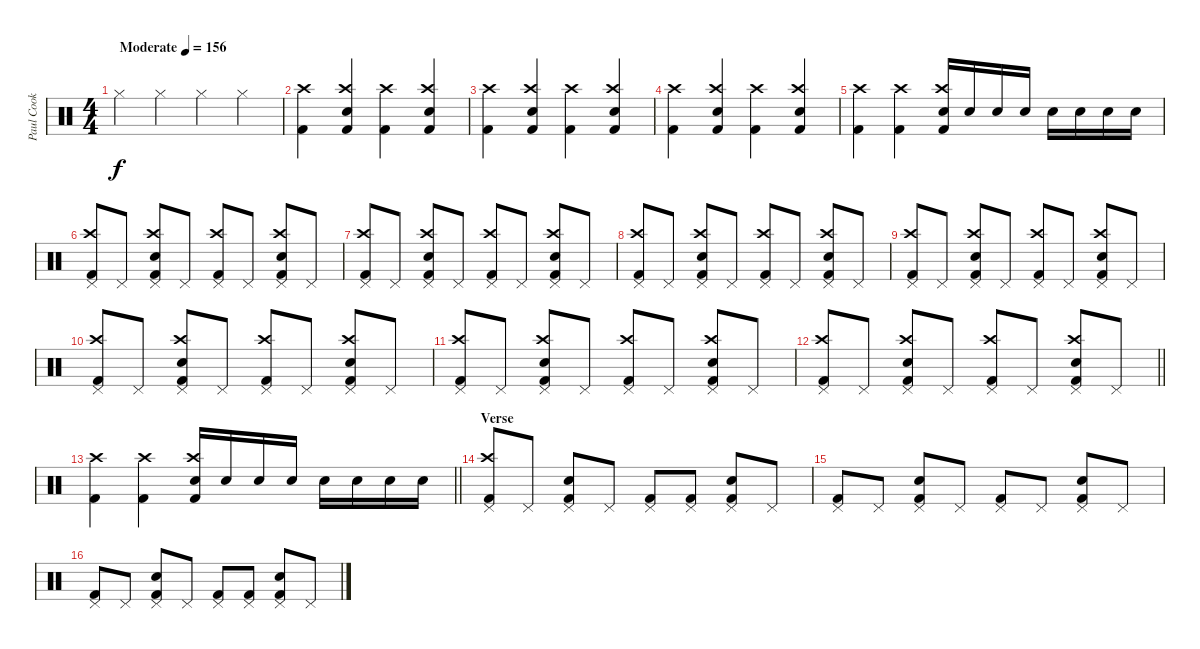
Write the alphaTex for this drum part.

\track ("Paul Cook" "Paul Cook") {instrument percussion}
\staff {score}
\articulation defaults
\ts (4 4)
\tempo (156 "Moderate")
\clef neutral
\ks c "Hi-Hat (closed)".4{dy f} "Hi-Hat (closed)".4 "Hi-Hat (closed)".4 "Hi-Hat (closed)".4
|
("Kick (hit) 2" "Crash high (hit)").4 ("Kick (hit) 2" "Crash high (hit)" "Snare (hit) 2").4 ("Kick (hit) 2" "Crash high (hit)").4 ("Kick (hit) 2" "Crash high (hit)" "Snare (hit) 2").4 |
("Kick (hit) 2" "Crash high (hit)").4 ("Kick (hit) 2" "Crash high (hit)" "Snare (hit) 2").4 ("Kick (hit) 2" "Crash high (hit)").4 ("Kick (hit) 2" "Crash high (hit)" "Snare (hit) 2").4 |
("Kick (hit) 2" "Crash high (hit)").4 ("Kick (hit) 2" "Crash high (hit)" "Snare (hit) 2").4 ("Kick (hit) 2" "Crash high (hit)").4 ("Kick (hit) 2" "Crash high (hit)" "Snare (hit) 2").4 |
("Kick (hit) 2" "Crash high (hit)").4 ("Kick (hit) 2" "Crash high (hit)").4 ("Kick (hit) 2" "Crash high (hit)" "Snare (hit) 2").16 "Snare (hit) 2".16 "Snare (hit) 2".16 "Snare (hit) 2".16 "Electric Snare (hit)".16 "Electric Snare (hit)".16 "Electric Snare (hit)".16 "Electric Snare (hit)".16 |
("Pedal Hi-Hat (hit)" "Crash high (hit)" "Kick (hit) 2").8 "Pedal Hi-Hat (hit)".8 ("Pedal Hi-Hat (hit)" "Crash high (hit)" "Kick (hit) 2" "Snare (hit) 2").8 "Pedal Hi-Hat (hit)".8 ("Pedal Hi-Hat (hit)" "Crash high (hit)" "Kick (hit) 2").8 "Pedal Hi-Hat (hit)".8 ("Pedal Hi-Hat (hit)" "Crash high (hit)" "Kick (hit) 2" "Snare (hit) 2").8 "Pedal Hi-Hat (hit)".8 |
("Pedal Hi-Hat (hit)" "Crash high (hit)" "Kick (hit) 2").8 "Pedal Hi-Hat (hit)".8 ("Pedal Hi-Hat (hit)" "Crash high (hit)" "Kick (hit) 2" "Snare (hit) 2").8 "Pedal Hi-Hat (hit)".8 ("Pedal Hi-Hat (hit)" "Crash high (hit)" "Kick (hit) 2").8 "Pedal Hi-Hat (hit)".8 ("Pedal Hi-Hat (hit)" "Crash high (hit)" "Kick (hit) 2" "Snare (hit) 2").8 "Pedal Hi-Hat (hit)".8 |
("Pedal Hi-Hat (hit)" "Crash high (hit)" "Kick (hit) 2").8 "Pedal Hi-Hat (hit)".8 ("Pedal Hi-Hat (hit)" "Crash high (hit)" "Kick (hit) 2" "Snare (hit) 2").8 "Pedal Hi-Hat (hit)".8 ("Pedal Hi-Hat (hit)" "Crash high (hit)" "Kick (hit) 2").8 "Pedal Hi-Hat (hit)".8 ("Pedal Hi-Hat (hit)" "Crash high (hit)" "Kick (hit) 2" "Snare (hit) 2").8 "Pedal Hi-Hat (hit)".8 |
("Pedal Hi-Hat (hit)" "Crash high (hit)" "Kick (hit) 2").8 "Pedal Hi-Hat (hit)".8 ("Pedal Hi-Hat (hit)" "Crash high (hit)" "Kick (hit) 2" "Snare (hit) 2").8 "Pedal Hi-Hat (hit)".8 ("Pedal Hi-Hat (hit)" "Crash high (hit)" "Kick (hit) 2").8 "Pedal Hi-Hat (hit)".8 ("Pedal Hi-Hat (hit)" "Crash high (hit)" "Kick (hit) 2" "Snare (hit) 2").8 "Pedal Hi-Hat (hit)".8 |
("Pedal Hi-Hat (hit)" "Crash high (hit)" "Kick (hit) 2").8 "Pedal Hi-Hat (hit)".8 ("Pedal Hi-Hat (hit)" "Crash high (hit)" "Kick (hit) 2" "Snare (hit) 2").8 "Pedal Hi-Hat (hit)".8 ("Pedal Hi-Hat (hit)" "Crash high (hit)" "Kick (hit) 2").8 "Pedal Hi-Hat (hit)".8 ("Pedal Hi-Hat (hit)" "Crash high (hit)" "Kick (hit) 2" "Snare (hit) 2").8 "Pedal Hi-Hat (hit)".8 |
("Pedal Hi-Hat (hit)" "Crash high (hit)" "Kick (hit) 2").8 "Pedal Hi-Hat (hit)".8 ("Pedal Hi-Hat (hit)" "Crash high (hit)" "Kick (hit) 2" "Snare (hit) 2").8 "Pedal Hi-Hat (hit)".8 ("Pedal Hi-Hat (hit)" "Crash high (hit)" "Kick (hit) 2").8 "Pedal Hi-Hat (hit)".8 ("Pedal Hi-Hat (hit)" "Crash high (hit)" "Kick (hit) 2" "Snare (hit) 2").8 "Pedal Hi-Hat (hit)".8 |
\barLineRight lightlight
("Pedal Hi-Hat (hit)" "Crash high (hit)" "Kick (hit) 2").8 "Pedal Hi-Hat (hit)".8 ("Pedal Hi-Hat (hit)" "Crash high (hit)" "Kick (hit) 2" "Snare (hit) 2").8 "Pedal Hi-Hat (hit)".8 ("Pedal Hi-Hat (hit)" "Crash high (hit)" "Kick (hit) 2").8 "Pedal Hi-Hat (hit)".8 ("Pedal Hi-Hat (hit)" "Crash high (hit)" "Kick (hit) 2" "Snare (hit) 2").8 "Pedal Hi-Hat (hit)".8 |
\section ("" "")
\barLineRight lightlight
("Kick (hit) 2" "Crash high (hit)").4 ("Kick (hit) 2" "Crash high (hit)").4 ("Kick (hit) 2" "Crash high (hit)" "Snare (hit) 2").16 "Snare (hit) 2".16 "Snare (hit) 2".16 "Snare (hit) 2".16 "Electric Snare (hit)".16 "Electric Snare (hit)".16 "Electric Snare (hit)".16 "Electric Snare (hit)".16 |
\section ("" "Verse")
("Pedal Hi-Hat (hit)" "Kick (hit) 2" "Crash high (hit)").8 "Pedal Hi-Hat (hit)".8 ("Pedal Hi-Hat (hit)" "Kick (hit) 2" "Snare (hit) 2").8 "Pedal Hi-Hat (hit)".8 ("Pedal Hi-Hat (hit)" "Kick (hit) 2").8 ("Pedal Hi-Hat (hit)" "Kick (hit) 2").8 ("Pedal Hi-Hat (hit)" "Kick (hit) 2" "Snare (hit) 2").8 "Pedal Hi-Hat (hit)".8 |
("Pedal Hi-Hat (hit)" "Kick (hit) 2").8 "Pedal Hi-Hat (hit)".8 ("Pedal Hi-Hat (hit)" "Kick (hit) 2" "Snare (hit) 2").8 "Pedal Hi-Hat (hit)".8 ("Pedal Hi-Hat (hit)" "Kick (hit) 2").8 "Pedal Hi-Hat (hit)".8 ("Pedal Hi-Hat (hit)" "Kick (hit) 2" "Snare (hit) 2").8 "Pedal Hi-Hat (hit)".8 |
("Pedal Hi-Hat (hit)" "Kick (hit) 2").8 "Pedal Hi-Hat (hit)".8 ("Pedal Hi-Hat (hit)" "Kick (hit) 2" "Snare (hit) 2").8 "Pedal Hi-Hat (hit)".8 ("Pedal Hi-Hat (hit)" "Kick (hit) 2").8 ("Pedal Hi-Hat (hit)" "Kick (hit) 2").8 ("Pedal Hi-Hat (hit)" "Kick (hit) 2" "Snare (hit) 2").8 "Pedal Hi-Hat (hit)".8
